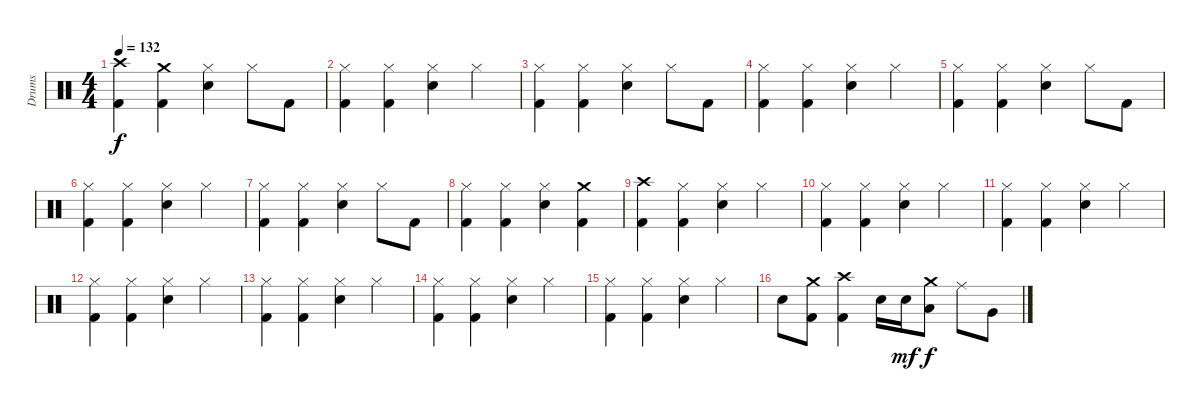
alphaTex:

\track ("Drums" "Drums") {instrument percussion}
\staff {score}
\articulation defaults
\ts (4 4)
\tempo 132
\clef neutral
\ks c
("Crash high (hit)" "Kick (hit) 2").4{dy f} ("Crash medium (hit)" "Kick (hit) 2").4 ("Hi-Hat (closed)" "Electric Snare (hit)").4 "Hi-Hat (closed)".8 "Kick (hit) 2".8 |
("Hi-Hat (closed)" "Kick (hit) 2").4 ("Hi-Hat (closed)" "Kick (hit) 2").4 ("Hi-Hat (closed)" "Electric Snare (hit)").4 "Hi-Hat (closed)".4 |
("Hi-Hat (closed)" "Kick (hit) 2").4 ("Hi-Hat (closed)" "Kick (hit) 2").4 ("Hi-Hat (closed)" "Electric Snare (hit)").4 "Hi-Hat (closed)".8 "Kick (hit) 2".8 |
("Hi-Hat (closed)" "Kick (hit) 2").4 ("Hi-Hat (closed)" "Kick (hit) 2").4 ("Hi-Hat (closed)" "Electric Snare (hit)").4 "Hi-Hat (closed)".4 |
("Hi-Hat (closed)" "Kick (hit) 2").4 ("Hi-Hat (closed)" "Kick (hit) 2").4 ("Hi-Hat (closed)" "Electric Snare (hit)").4 "Hi-Hat (closed)".8 "Kick (hit) 2".8 |
("Hi-Hat (closed)" "Kick (hit) 2").4 ("Hi-Hat (closed)" "Kick (hit) 2").4 ("Hi-Hat (closed)" "Electric Snare (hit)").4 "Hi-Hat (closed)".4 |
("Hi-Hat (closed)" "Kick (hit) 2").4 ("Hi-Hat (closed)" "Kick (hit) 2").4 ("Hi-Hat (closed)" "Electric Snare (hit)").4 "Hi-Hat (closed)".8 "Kick (hit) 2".8 |
("Hi-Hat (closed)" "Kick (hit) 2").4 ("Hi-Hat (closed)" "Kick (hit) 2").4 ("Hi-Hat (closed)" "Electric Snare (hit)").4 ("Crash medium (hit)" "Kick (hit) 2").4 |
("Crash high (hit)" "Kick (hit) 2").4 ("Hi-Hat (closed)" "Kick (hit) 2").4 ("Hi-Hat (closed)" "Electric Snare (hit)").4 "Hi-Hat (closed)".4 |
("Hi-Hat (closed)" "Kick (hit) 2").4 ("Hi-Hat (closed)" "Kick (hit) 2").4 ("Hi-Hat (closed)" "Electric Snare (hit)").4 "Hi-Hat (closed)".4 |
("Hi-Hat (closed)" "Kick (hit) 2").4 ("Hi-Hat (closed)" "Kick (hit) 2").4 ("Hi-Hat (closed)" "Electric Snare (hit)").4 "Hi-Hat (closed)".4 |
("Hi-Hat (closed)" "Kick (hit) 2").4 ("Hi-Hat (closed)" "Kick (hit) 2").4 ("Hi-Hat (closed)" "Electric Snare (hit)").4 "Hi-Hat (closed)".4 |
("Hi-Hat (closed)" "Kick (hit) 2").4 ("Hi-Hat (closed)" "Kick (hit) 2").4 ("Hi-Hat (closed)" "Electric Snare (hit)").4 "Hi-Hat (closed)".4 |
("Hi-Hat (closed)" "Kick (hit) 2").4 ("Hi-Hat (closed)" "Kick (hit) 2").4 ("Hi-Hat (closed)" "Electric Snare (hit)").4 "Hi-Hat (closed)".4 |
("Hi-Hat (closed)" "Kick (hit) 2").4 ("Hi-Hat (closed)" "Kick (hit) 2").4 ("Hi-Hat (closed)" "Electric Snare (hit)").4 "Hi-Hat (closed)".4 |
"Electric Snare (hit)".8 ("Crash medium (hit)" "Kick (hit) 2").8 ("Crash high (hit)" "Kick (hit) 2").4 "Electric Snare (hit)".16 "Electric Snare (hit)".16{dy mf} ("Crash medium (hit)" "Low Tom (hit)").8{dy f} "Ride (middle)".8 "Very Low Tom (hit)".8
